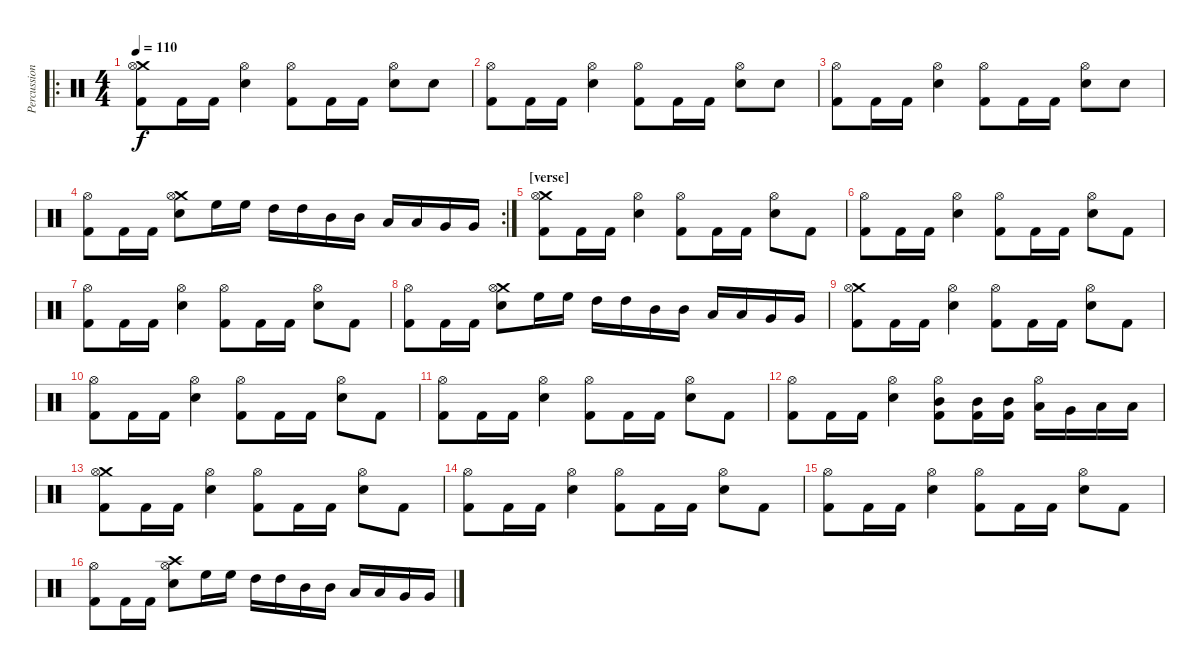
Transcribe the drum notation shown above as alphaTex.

\track ("Percussion" "Percussion") {instrument percussion}
\staff {score}
\articulation defaults
\ro
\ts (4 4)
\tempo 110
\clef neutral
\ks c
("Crash medium (hit)" "Hi-Hat (open)" "Kick (hit) 2").8{dy f} "Kick (hit) 2".16 "Kick (hit) 2".16 ("Hi-Hat (open)" "Electric Snare (hit)").4 ("Hi-Hat (open)" "Kick (hit) 2").8 "Kick (hit) 2".16 "Kick (hit) 2".16 ("Hi-Hat (open)" "Electric Snare (hit)").8 "Electric Snare (hit)".8 |
("Hi-Hat (open)" "Kick (hit) 2").8 "Kick (hit) 2".16 "Kick (hit) 2".16 ("Hi-Hat (open)" "Electric Snare (hit)").4 ("Hi-Hat (open)" "Kick (hit) 2").8 "Kick (hit) 2".16 "Kick (hit) 2".16 ("Hi-Hat (open)" "Electric Snare (hit)").8 "Electric Snare (hit)".8 |
("Hi-Hat (open)" "Kick (hit) 2").8 "Kick (hit) 2".16 "Kick (hit) 2".16 ("Hi-Hat (open)" "Electric Snare (hit)").4 ("Hi-Hat (open)" "Kick (hit) 2").8 "Kick (hit) 2".16 "Kick (hit) 2".16 ("Hi-Hat (open)" "Electric Snare (hit)").8 "Electric Snare (hit)".8 |
\rc 2
("Hi-Hat (open)" "Kick (hit) 2").8 "Kick (hit) 2".16 "Kick (hit) 2".16 ("Crash medium (hit)" "Hi-Hat (open)" "Electric Snare (hit)").8 "High Floor Tom (hit)".16 "High Floor Tom (hit)".16 "High Tom (hit)".16 "High Tom (hit)".16 "Mid Tom (hit)".16 "Mid Tom (hit)".16 "Low Tom (hit)".16 "Low Tom (hit)".16 "Very Low Tom (hit)".16 "Very Low Tom (hit)".16 |
\section ("" "[verse]")
("Crash medium (hit)" "Hi-Hat (open)" "Kick (hit) 2").8 "Kick (hit) 2".16 "Kick (hit) 2".16 ("Hi-Hat (open)" "Electric Snare (hit)").4 ("Hi-Hat (open)" "Kick (hit) 2").8 "Kick (hit) 2".16 "Kick (hit) 2".16 ("Hi-Hat (open)" "Electric Snare (hit)").8 "Kick (hit) 2".8 |
("Hi-Hat (open)" "Kick (hit) 2").8 "Kick (hit) 2".16 "Kick (hit) 2".16 ("Hi-Hat (open)" "Electric Snare (hit)").4 ("Hi-Hat (open)" "Kick (hit) 2").8 "Kick (hit) 2".16 "Kick (hit) 2".16 ("Hi-Hat (open)" "Electric Snare (hit)").8 "Kick (hit) 2".8 |
("Hi-Hat (open)" "Kick (hit) 2").8 "Kick (hit) 2".16 "Kick (hit) 2".16 ("Hi-Hat (open)" "Electric Snare (hit)").4 ("Hi-Hat (open)" "Kick (hit) 2").8 "Kick (hit) 2".16 "Kick (hit) 2".16 ("Hi-Hat (open)" "Electric Snare (hit)").8 "Kick (hit) 2".8 |
("Hi-Hat (open)" "Kick (hit) 2").8 "Kick (hit) 2".16 "Kick (hit) 2".16 ("Crash medium (hit)" "Hi-Hat (open)" "Electric Snare (hit)").8 "High Floor Tom (hit)".16 "High Floor Tom (hit)".16 "High Tom (hit)".16 "High Tom (hit)".16 "Mid Tom (hit)".16 "Mid Tom (hit)".16 "Low Tom (hit)".16 "Low Tom (hit)".16 "Very Low Tom (hit)".16 "Very Low Tom (hit)".16 |
("Crash medium (hit)" "Hi-Hat (open)" "Kick (hit) 2").8 "Kick (hit) 2".16 "Kick (hit) 2".16 ("Hi-Hat (open)" "Electric Snare (hit)").4 ("Hi-Hat (open)" "Kick (hit) 2").8 "Kick (hit) 2".16 "Kick (hit) 2".16 ("Hi-Hat (open)" "Electric Snare (hit)").8 "Kick (hit) 2".8 |
("Hi-Hat (open)" "Kick (hit) 2").8 "Kick (hit) 2".16 "Kick (hit) 2".16 ("Hi-Hat (open)" "Electric Snare (hit)").4 ("Hi-Hat (open)" "Kick (hit) 2").8 "Kick (hit) 2".16 "Kick (hit) 2".16 ("Hi-Hat (open)" "Electric Snare (hit)").8 "Kick (hit) 2".8 |
("Hi-Hat (open)" "Kick (hit) 2").8 "Kick (hit) 2".16 "Kick (hit) 2".16 ("Hi-Hat (open)" "Electric Snare (hit)").4 ("Hi-Hat (open)" "Kick (hit) 2").8 "Kick (hit) 2".16 "Kick (hit) 2".16 ("Hi-Hat (open)" "Electric Snare (hit)").8 "Kick (hit) 2".8 |
("Hi-Hat (open)" "Kick (hit) 2").8 "Kick (hit) 2".16 "Kick (hit) 2".16 ("Hi-Hat (open)" "Electric Snare (hit)").4 ("Hi-Hat (open)" "Mid Tom (hit)" "Kick (hit) 2").8 ("Mid Tom (hit)" "Kick (hit) 2").16 ("Mid Tom (hit)" "Kick (hit) 2").16 ("Hi-Hat (open)" "Low Tom (hit)").16 "Very Low Tom (hit)".16 "Low Floor Tom (hit)".16 "Low Floor Tom (hit)".16 |
("Crash medium (hit)" "Hi-Hat (open)" "Kick (hit) 2").8 "Kick (hit) 2".16 "Kick (hit) 2".16 ("Hi-Hat (open)" "Electric Snare (hit)").4 ("Hi-Hat (open)" "Kick (hit) 2").8 "Kick (hit) 2".16 "Kick (hit) 2".16 ("Hi-Hat (open)" "Electric Snare (hit)").8 "Kick (hit) 2".8 |
("Hi-Hat (open)" "Kick (hit) 2").8 "Kick (hit) 2".16 "Kick (hit) 2".16 ("Hi-Hat (open)" "Electric Snare (hit)").4 ("Hi-Hat (open)" "Kick (hit) 2").8 "Kick (hit) 2".16 "Kick (hit) 2".16 ("Hi-Hat (open)" "Electric Snare (hit)").8 "Kick (hit) 2".8 |
("Hi-Hat (open)" "Kick (hit) 2").8 "Kick (hit) 2".16 "Kick (hit) 2".16 ("Hi-Hat (open)" "Electric Snare (hit)").4 ("Hi-Hat (open)" "Kick (hit) 2").8 "Kick (hit) 2".16 "Kick (hit) 2".16 ("Hi-Hat (open)" "Electric Snare (hit)").8 "Kick (hit) 2".8 |
("Hi-Hat (open)" "Kick (hit) 2").8 "Kick (hit) 2".16 "Kick (hit) 2".16 ("Crash high (hit)" "Hi-Hat (open)" "Electric Snare (hit)").8 "High Floor Tom (hit)".16 "High Floor Tom (hit)".16 "High Tom (hit)".16 "High Tom (hit)".16 "Mid Tom (hit)".16 "Mid Tom (hit)".16 "Low Tom (hit)".16 "Low Tom (hit)".16 "Very Low Tom (hit)".16 "Very Low Tom (hit)".16
